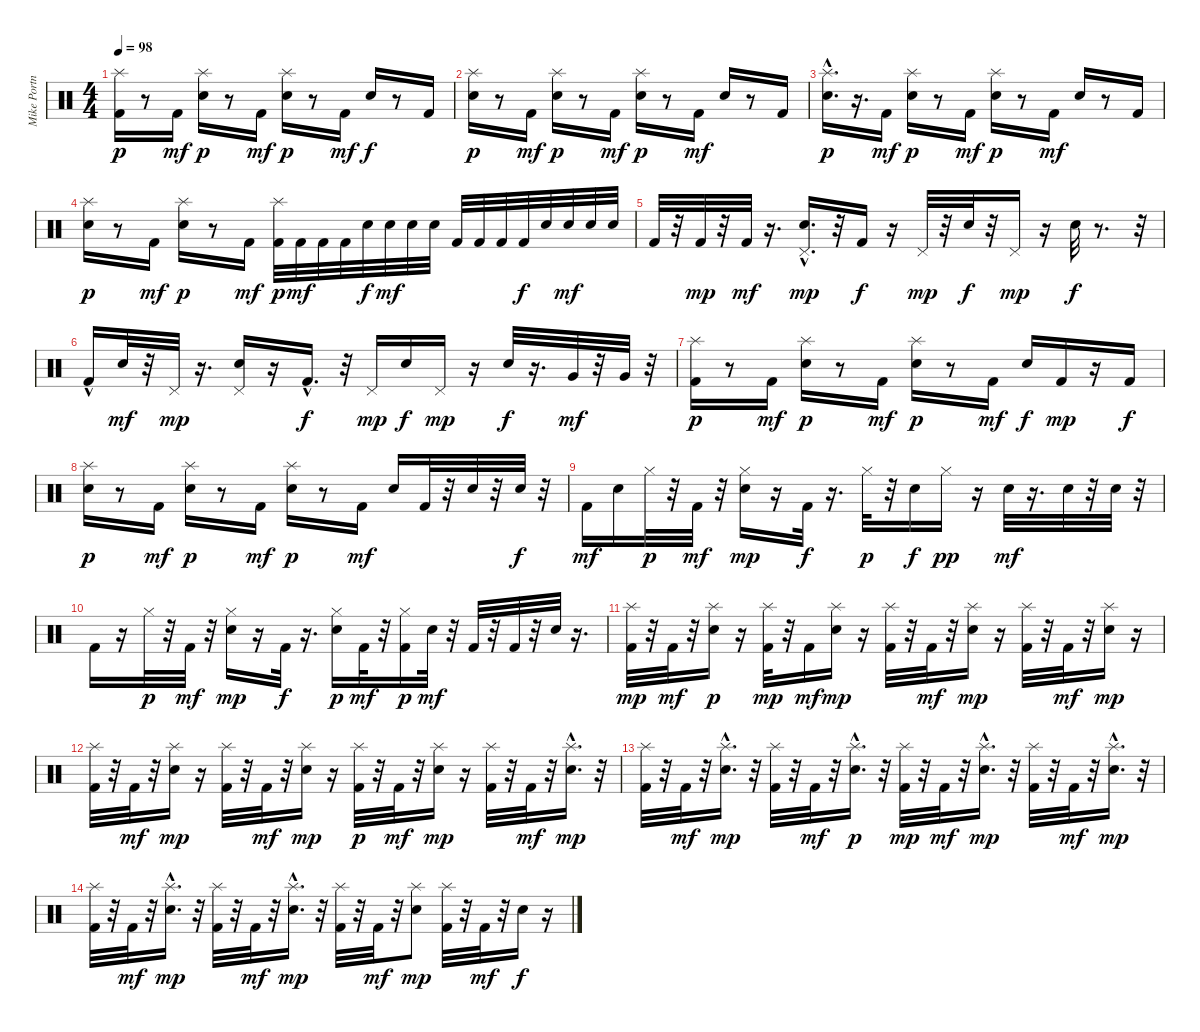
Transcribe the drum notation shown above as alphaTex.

\track ("Mike Portnoy" "Mike Portn") {instrument percussion}
\staff {score}
\articulation defaults
\ts (4 4)
\tempo 98
\clef neutral
\ks c
("Kick (hit) 2" "Splash (hit)").16{dy p} r.8 "Kick (hit) 2".16{dy mf} ("Electric Snare (hit)" "Splash (hit)").16{dy p} r.8 "Kick (hit) 2".16{dy mf} ("Electric Snare (hit)" "Splash (hit)").16{dy p} r.8 "Kick (hit) 2".16{dy mf} "Electric Snare (hit)".16{dy f} r.8 "Kick (hit) 2".16 |
("Electric Snare (hit)" "Splash (hit)").16{dy p} r.8 "Kick (hit) 2".16{dy mf} ("Electric Snare (hit)" "Splash (hit)").16{dy p} r.8 "Kick (hit) 2".16{dy mf} ("Electric Snare (hit)" "Splash (hit)").16{dy p} r.8 "Kick (hit) 2".16{dy mf} "Electric Snare (hit)".16 r.8 "Kick (hit) 2".16 |
("Electric Snare (hit)"{hac} "Splash (hit)").16{d dy p} r.16{d} "Kick (hit) 2".16{dy mf} ("Electric Snare (hit)" "Splash (hit)").16{dy p} r.8 "Kick (hit) 2".16{dy mf} ("Electric Snare (hit)" "Splash (hit)").16{dy p} r.8 "Kick (hit) 2".16{dy mf} "Electric Snare (hit)".16 r.8 "Kick (hit) 2".16 |
("Electric Snare (hit)" "Splash (hit)").16{dy p} r.8 "Kick (hit) 2".16{dy mf} ("Electric Snare (hit)" "Splash (hit)").16{dy p} r.8 "Kick (hit) 2".16{dy mf} ("Kick (hit) 2" "Splash (hit)").32{dy p} "Kick (hit) 2".32{dy mf} "Kick (hit) 2".32 "Kick (hit) 2".32 "Electric Snare (hit)".32{dy f} "Electric Snare (hit)".32{dy mf} "Electric Snare (hit)".32 "Electric Snare (hit)".32 "Kick (hit) 2".32 "Kick (hit) 2".32 "Kick (hit) 2".32 "Kick (hit) 2".32{dy f} "Electric Snare (hit)".32 "Electric Snare (hit)".32{dy mf} "Electric Snare (hit)".32 "Electric Snare (hit)".32 |
"Kick (hit) 2".32 r.32 "Kick (hit) 2".32{dy mp} r.32 "Kick (hit) 2".32{dy mf} r.16{d} ("Electric Snare (hit)"{hac} "Pedal Hi-Hat (hit)").16{d dy mp} r.32 "Kick (hit) 2".16{dy f} r.16 "Pedal Hi-Hat (hit)".32{dy mp} r.32 "Electric Snare (hit)".32{dy f} r.32 "Pedal Hi-Hat (hit)".16{dy mp} r.16 "Electric Snare (hit)".32{dy f} r.8{d} r.32 |
"Kick (hit) 2"{hac}.16 "Electric Snare (hit)".32{dy mf} r.32 "Pedal Hi-Hat (hit)".32{dy mp} r.16{d} ("Electric Snare (hit)" "Pedal Hi-Hat (hit)").16 r.16 "Kick (hit) 2"{hac}.16{d dy f} r.32 "Pedal Hi-Hat (hit)".16{dy mp} "Electric Snare (hit)".16{dy f} "Pedal Hi-Hat (hit)".16{dy mp} r.16 "Electric Snare (hit)".32{dy f} r.16{d} "Very Low Tom (hit)".32{dy mf} r.32 "Very Low Tom (hit)".32 r.32 |
("Kick (hit) 2" "Splash (hit)").16{dy p} r.8 "Kick (hit) 2".16{dy mf} ("Electric Snare (hit)" "Splash (hit)").16{dy p} r.8 "Kick (hit) 2".16{dy mf} ("Electric Snare (hit)" "Splash (hit)").16{dy p} r.8 "Kick (hit) 2".16{dy mf} "Electric Snare (hit)".16{dy f} "Kick (hit) 2".16{dy mp} r.16 "Kick (hit) 2".16{dy f} |
("Electric Snare (hit)" "Splash (hit)").16{dy p} r.8 "Kick (hit) 2".16{dy mf} ("Electric Snare (hit)" "Splash (hit)").16{dy p} r.8 "Kick (hit) 2".16{dy mf} ("Electric Snare (hit)" "Splash (hit)").16{dy p} r.8 "Kick (hit) 2".16{dy mf} "Electric Snare (hit)".16 "Kick (hit) 2".32 r.32 "Electric Snare (hit)".32 r.32 "Electric Snare (hit)".32{dy f} r.32 |
"Kick (hit) 2".16{dy mf} "Electric Snare (hit)".16 "Hi-Hat (closed)".32{dy p} r.32 "Kick (hit) 2".32{dy mf} r.32 ("Electric Snare (hit)" "Hi-Hat (closed)").16{dy mp} r.16 "Kick (hit) 2".32{dy f} r.16{d} "Hi-Hat (closed)".32{dy p} r.32 "Electric Snare (hit)".16{dy f} "Hi-Hat (closed)".16{dy pp} r.16 "Electric Snare (hit)".32{dy mf} r.16{d} "Electric Snare (hit)".32 r.32 "Electric Snare (hit)".32 r.32 |
"Kick (hit) 2".16 r.16 "Hi-Hat (closed)".32{dy p} r.32 "Kick (hit) 2".32{dy mf} r.32 ("Electric Snare (hit)" "Hi-Hat (closed)").16{dy mp} r.16 "Kick (hit) 2".32{dy f} r.16{d} ("Electric Snare (hit)" "Hi-Hat (closed)").16{dy p} "Kick (hit) 2".32{dy mf} r.32 ("Kick (hit) 2" "Hi-Hat (closed)").16{dy p} "Electric Snare (hit)".32{dy mf} r.32 "Kick (hit) 2".32 r.32 "Kick (hit) 2".32 r.32 "Electric Snare (hit)".32 r.16{d} |
("Kick (hit) 2" "Splash (hit)").32{dy mp} r.32 "Kick (hit) 2".32{dy mf} r.32 ("Electric Snare (hit)" "Splash (hit)").16{dy p} r.16 ("Kick (hit) 2" "Splash (hit)").32{dy mp} r.32 "Kick (hit) 2".16{dy mf} ("Electric Snare (hit)" "Splash (hit)").16{dy mp} r.16 ("Kick (hit) 2" "Splash (hit)").32 r.32 "Kick (hit) 2".32{dy mf} r.32 ("Electric Snare (hit)" "Splash (hit)").16{dy mp} r.16 ("Kick (hit) 2" "Splash (hit)").32 r.32 "Kick (hit) 2".32{dy mf} r.32 ("Electric Snare (hit)" "Splash (hit)").16{dy mp} r.16 |
("Kick (hit) 2" "Splash (hit)").32 r.32 "Kick (hit) 2".32{dy mf} r.32 ("Electric Snare (hit)" "Splash (hit)").16{dy mp} r.16 ("Kick (hit) 2" "Splash (hit)").32 r.32 "Kick (hit) 2".32{dy mf} r.32 ("Electric Snare (hit)" "Splash (hit)").16{dy mp} r.16 ("Kick (hit) 2" "Splash (hit)").32{dy p} r.32 "Kick (hit) 2".32{dy mf} r.32 ("Electric Snare (hit)" "Splash (hit)").16{dy mp} r.16 ("Kick (hit) 2" "Splash (hit)").32 r.32 "Kick (hit) 2".32{dy mf} r.32 ("Electric Snare (hit)"{hac} "Splash (hit)").16{d dy mp} r.32 |
("Kick (hit) 2" "Splash (hit)").32 r.32 "Kick (hit) 2".32{dy mf} r.32 ("Electric Snare (hit)"{hac} "Splash (hit)").16{d dy mp} r.32 ("Kick (hit) 2" "Splash (hit)").32 r.32 "Kick (hit) 2".32{dy mf} r.32 ("Electric Snare (hit)"{hac} "Splash (hit)").16{d dy p} r.32 ("Kick (hit) 2" "Splash (hit)").32{dy mp} r.32 "Kick (hit) 2".32{dy mf} r.32 ("Electric Snare (hit)"{hac} "Splash (hit)").16{d dy mp} r.32 ("Kick (hit) 2" "Splash (hit)").32 r.32 "Kick (hit) 2".32{dy mf} r.32 ("Electric Snare (hit)"{hac} "Splash (hit)").16{d dy mp} r.32 |
("Kick (hit) 2" "Splash (hit)").32 r.32 "Kick (hit) 2".32{dy mf} r.32 ("Electric Snare (hit)"{hac} "Splash (hit)").16{d dy mp} r.32 ("Kick (hit) 2" "Splash (hit)").32 r.32 "Kick (hit) 2".32{dy mf} r.32 ("Electric Snare (hit)"{hac} "Splash (hit)").16{d dy mp} r.32 ("Kick (hit) 2" "Splash (hit)").32 r.32 "Kick (hit) 2".32{dy mf} r.32 ("Electric Snare (hit)" "Splash (hit)").8{dy mp} ("Kick (hit) 2" "Splash (hit)").32 r.32 "Kick (hit) 2".32{dy mf} r.32 "Electric Snare (hit)".16{dy f} r.16
